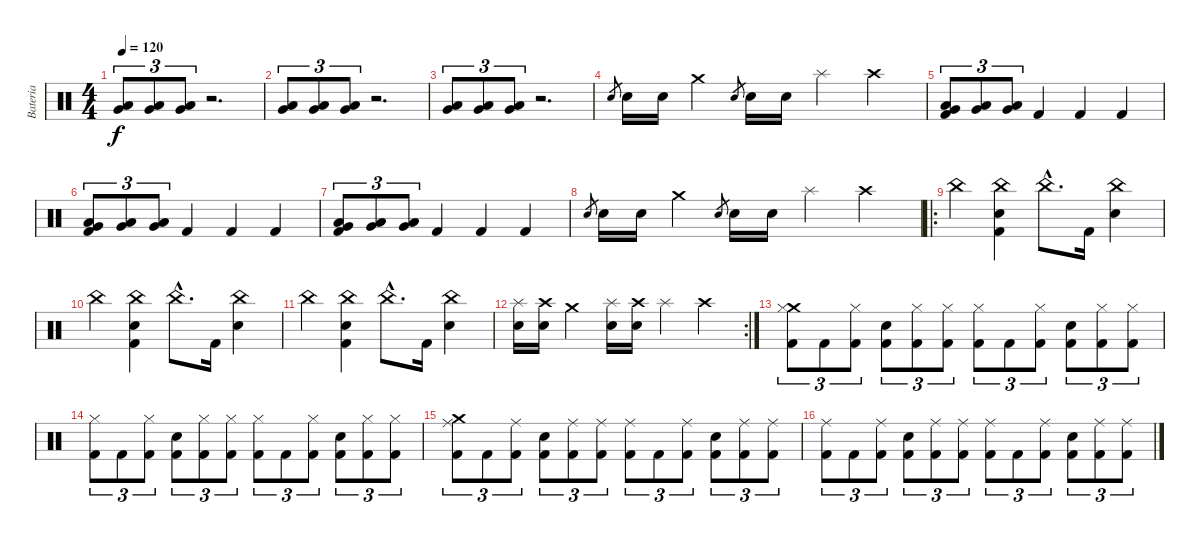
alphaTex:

\track ("Bateria" "Bateria") {instrument percussion}
\staff {score}
\articulation defaults
\ts (4 4)
\tempo 120
\clef neutral
\ks c
("Low Floor Tom (hit)" "Very Low Tom (hit)").8{tu (3 2) dy f} ("Low Floor Tom (hit)" "Very Low Tom (hit)").8{tu (3 2)} ("Low Floor Tom (hit)" "Very Low Tom (hit)").8{tu (3 2)} r.2{d} |
("Low Floor Tom (hit)" "Very Low Tom (hit)").8{tu (3 2)} ("Low Floor Tom (hit)" "Very Low Tom (hit)").8{tu (3 2)} ("Low Floor Tom (hit)" "Very Low Tom (hit)").8{tu (3 2)} r.2{d} |
("Low Floor Tom (hit)" "Very Low Tom (hit)").8{tu (3 2)} ("Low Floor Tom (hit)" "Very Low Tom (hit)").8{tu (3 2)} ("Low Floor Tom (hit)" "Very Low Tom (hit)").8{tu (3 2)} r.2{d} |
"Snare (hit) 2".8{gr} "Snare (hit) 2".16 "Snare (hit) 2".16 "Crash medium (hit)".4 "Snare (hit) 2".8{gr} "Snare (hit) 2".16 "Snare (hit) 2".16 "Splash (hit)".4 "Crash high (hit)".4 |
("Low Floor Tom (hit)" "Very Low Tom (hit)" "Kick (hit) 2").8{tu (3 2)} ("Low Floor Tom (hit)" "Very Low Tom (hit)").8{tu (3 2)} ("Low Floor Tom (hit)" "Very Low Tom (hit)").8{tu (3 2)} "Kick (hit) 2".4 "Kick (hit) 2".4 "Kick (hit) 2".4 |
("Low Floor Tom (hit)" "Very Low Tom (hit)" "Kick (hit) 2").8{tu (3 2)} ("Low Floor Tom (hit)" "Very Low Tom (hit)").8{tu (3 2)} ("Low Floor Tom (hit)" "Very Low Tom (hit)").8{tu (3 2)} "Kick (hit) 2".4 "Kick (hit) 2".4 "Kick (hit) 2".4 |
("Low Floor Tom (hit)" "Very Low Tom (hit)" "Kick (hit) 2").8{tu (3 2)} ("Low Floor Tom (hit)" "Very Low Tom (hit)").8{tu (3 2)} ("Low Floor Tom (hit)" "Very Low Tom (hit)").8{tu (3 2)} "Kick (hit) 2".4 "Kick (hit) 2".4 "Kick (hit) 2".4 |
"Snare (hit) 2".8{gr} "Snare (hit) 2".16 "Snare (hit) 2".16 "Crash medium (hit)".4 "Snare (hit) 2".8{gr} "Snare (hit) 2".16 "Snare (hit) 2".16 "Splash (hit)".4 "Crash high (hit)".4 |
\ro "China (hit)".4
("China (hit)" "Snare (hit) 2" "Kick (hit) 2").4 "China (hit)"{hac}.8{d} "Kick (hit) 2".16 ("China (hit)" "Snare (hit) 2").4 |
"China (hit)".4 ("China (hit)" "Snare (hit) 2" "Kick (hit) 2").4 "China (hit)"{hac}.8{d} "Kick (hit) 2".16 ("China (hit)" "Snare (hit) 2").4 |
"China (hit)".4 ("China (hit)" "Snare (hit) 2" "Kick (hit) 2").4 "China (hit)"{hac}.8{d} "Kick (hit) 2".16 ("China (hit)" "Snare (hit) 2").4 |
\rc 2
("Splash (hit)" "Snare (hit) 2").16 ("Crash high (hit)" "Snare (hit) 2").16 "Crash medium (hit)".4 ("Splash (hit)" "Snare (hit) 2").16 ("Crash high (hit)" "Snare (hit) 2").16 "Splash (hit)".4 "Crash high (hit)".4 |
("Crash medium (hit)" "Hi-Hat (closed)" "Kick (hit) 2").8{tu (3 2)} "Kick (hit) 2".8{tu (3 2)} ("Hi-Hat (closed)" "Kick (hit) 2").8{tu (3 2)} ("Snare (hit) 2" "Kick (hit) 2").8{tu (3 2)} ("Hi-Hat (closed)" "Kick (hit) 2").8{tu (3 2)} ("Hi-Hat (closed)" "Kick (hit) 2").8{tu (3 2)} ("Hi-Hat (closed)" "Kick (hit) 2").8{tu (3 2)} "Kick (hit) 2".8{tu (3 2)} ("Hi-Hat (closed)" "Kick (hit) 2").8{tu (3 2)} ("Snare (hit) 2" "Kick (hit) 2").8{tu (3 2)} ("Hi-Hat (closed)" "Kick (hit) 2").8{tu (3 2)} ("Hi-Hat (closed)" "Kick (hit) 2").8{tu (3 2)} |
("Hi-Hat (closed)" "Kick (hit) 2").8{tu (3 2)} "Kick (hit) 2".8{tu (3 2)} ("Hi-Hat (closed)" "Kick (hit) 2").8{tu (3 2)} ("Snare (hit) 2" "Kick (hit) 2").8{tu (3 2)} ("Hi-Hat (closed)" "Kick (hit) 2").8{tu (3 2)} ("Hi-Hat (closed)" "Kick (hit) 2").8{tu (3 2)} ("Hi-Hat (closed)" "Kick (hit) 2").8{tu (3 2)} "Kick (hit) 2".8{tu (3 2)} ("Hi-Hat (closed)" "Kick (hit) 2").8{tu (3 2)} ("Snare (hit) 2" "Kick (hit) 2").8{tu (3 2)} ("Hi-Hat (closed)" "Kick (hit) 2").8{tu (3 2)} ("Hi-Hat (closed)" "Kick (hit) 2").8{tu (3 2)} |
("Crash medium (hit)" "Ride (middle)" "Kick (hit) 2").8{tu (3 2)} "Kick (hit) 2".8{tu (3 2)} ("Ride (middle)" "Kick (hit) 2").8{tu (3 2)} ("Snare (hit) 2" "Kick (hit) 2").8{tu (3 2)} ("Ride (middle)" "Kick (hit) 2").8{tu (3 2)} ("Ride (middle)" "Kick (hit) 2").8{tu (3 2)} ("Ride (middle)" "Kick (hit) 2").8{tu (3 2)} "Kick (hit) 2".8{tu (3 2)} ("Ride (middle)" "Kick (hit) 2").8{tu (3 2)} ("Snare (hit) 2" "Kick (hit) 2").8{tu (3 2)} ("Ride (middle)" "Kick (hit) 2").8{tu (3 2)} ("Ride (middle)" "Kick (hit) 2").8{tu (3 2)} |
("Ride (middle)" "Kick (hit) 2").8{tu (3 2)} "Kick (hit) 2".8{tu (3 2)} ("Ride (middle)" "Kick (hit) 2").8{tu (3 2)} ("Snare (hit) 2" "Kick (hit) 2").8{tu (3 2)} ("Ride (middle)" "Kick (hit) 2").8{tu (3 2)} ("Ride (middle)" "Kick (hit) 2").8{tu (3 2)} ("Ride (middle)" "Kick (hit) 2").8{tu (3 2)} "Kick (hit) 2".8{tu (3 2)} ("Ride (middle)" "Kick (hit) 2").8{tu (3 2)} ("Snare (hit) 2" "Kick (hit) 2").8{tu (3 2)} ("Ride (middle)" "Kick (hit) 2").8{tu (3 2)} ("Ride (middle)" "Kick (hit) 2").8{tu (3 2)}
